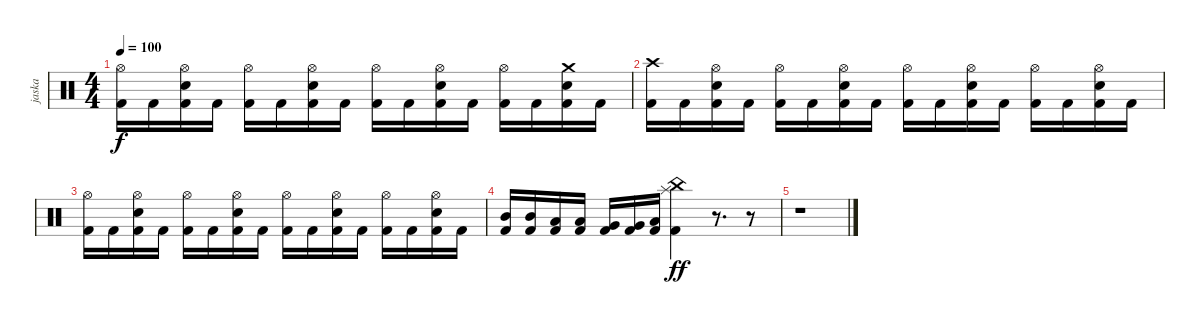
\track ("jaska" "jaska") {instrument percussion}
\staff {score}
\articulation defaults
\ts (4 4)
\tempo 100
\clef neutral
\ks c
("Hi-Hat (open)" "Kick (hit) 2").16{dy f} "Kick (hit) 2".16 ("Hi-Hat (open)" "Electric Snare (hit)" "Kick (hit) 2").16 "Kick (hit) 2".16 ("Hi-Hat (open)" "Kick (hit) 2").16 "Kick (hit) 2".16 ("Hi-Hat (open)" "Electric Snare (hit)" "Kick (hit) 2").16 "Kick (hit) 2".16 ("Hi-Hat (open)" "Kick (hit) 2").16 "Kick (hit) 2".16 ("Hi-Hat (open)" "Electric Snare (hit)" "Kick (hit) 2").16 "Kick (hit) 2".16 ("Hi-Hat (open)" "Kick (hit) 2").16 "Kick (hit) 2".16 ("Crash medium (hit)" "Electric Snare (hit)" "Kick (hit) 2").16 "Kick (hit) 2".16 |
("Crash high (hit)" "Kick (hit) 2").16 "Kick (hit) 2".16 ("Hi-Hat (open)" "Electric Snare (hit)" "Kick (hit) 2").16 "Kick (hit) 2".16 ("Hi-Hat (open)" "Kick (hit) 2").16 "Kick (hit) 2".16 ("Hi-Hat (open)" "Electric Snare (hit)" "Kick (hit) 2").16 "Kick (hit) 2".16 ("Hi-Hat (open)" "Kick (hit) 2").16 "Kick (hit) 2".16 ("Hi-Hat (open)" "Electric Snare (hit)" "Kick (hit) 2").16 "Kick (hit) 2".16 ("Hi-Hat (open)" "Kick (hit) 2").16 "Kick (hit) 2".16 ("Hi-Hat (open)" "Electric Snare (hit)" "Kick (hit) 2").16 "Kick (hit) 2".16 |
("Hi-Hat (open)" "Kick (hit) 2").16 "Kick (hit) 2".16 ("Hi-Hat (open)" "Electric Snare (hit)" "Kick (hit) 2").16 "Kick (hit) 2".16 ("Hi-Hat (open)" "Kick (hit) 2").16 "Kick (hit) 2".16 ("Hi-Hat (open)" "Electric Snare (hit)" "Kick (hit) 2").16 "Kick (hit) 2".16 ("Hi-Hat (open)" "Kick (hit) 2").16 "Kick (hit) 2".16 ("Hi-Hat (open)" "Electric Snare (hit)" "Kick (hit) 2").16 "Kick (hit) 2".16 ("Hi-Hat (open)" "Kick (hit) 2").16 "Kick (hit) 2".16 ("Hi-Hat (open)" "Electric Snare (hit)" "Kick (hit) 2").16 "Kick (hit) 2".16 |
("Mid Tom (hit)" "Kick (hit) 2").16 ("Mid Tom (hit)" "Kick (hit) 2").16 ("Low Tom (hit)" "Kick (hit) 2").16 ("Low Tom (hit)" "Kick (hit) 2").16 ("Very Low Tom (hit)" "Kick (hit) 2").16 ("Very Low Tom (hit)" "Kick (hit) 2").16 ("Low Floor Tom (hit)" "Kick (hit) 2").16 ("China (hit)" "Splash (hit)" "Kick (hit) 2").4{dy ff} r.8{d} r.8 |
r.1
